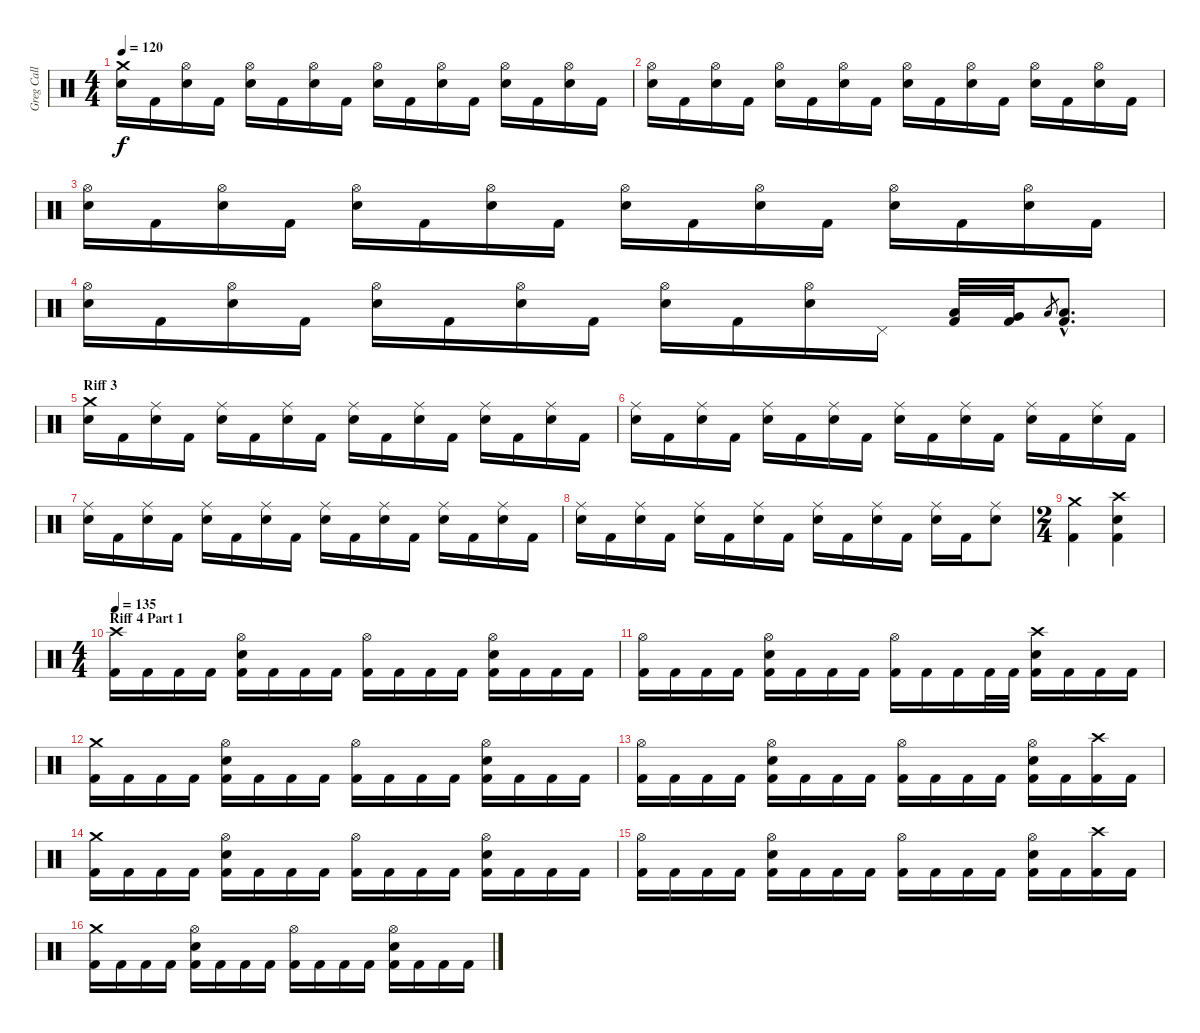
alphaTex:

\track ("Greg Call (Drums)" "Greg Call ") {instrument percussion}
\staff {score}
\articulation defaults
\ts (4 4)
\tempo 120
\clef neutral
\ks c
("Crash medium (hit)" "Snare (hit) 2").16{dy f} "Kick (hit) 2".16 ("Hi-Hat (open)" "Snare (hit) 2").16 "Kick (hit) 2".16 ("Hi-Hat (open)" "Snare (hit) 2").16 "Kick (hit) 2".16 ("Hi-Hat (open)" "Snare (hit) 2").16 "Kick (hit) 2".16 ("Hi-Hat (open)" "Snare (hit) 2").16 "Kick (hit) 2".16 ("Hi-Hat (open)" "Snare (hit) 2").16 "Kick (hit) 2".16 ("Hi-Hat (open)" "Snare (hit) 2").16 "Kick (hit) 2".16 ("Hi-Hat (open)" "Snare (hit) 2").16 "Kick (hit) 2".16 |
("Hi-Hat (open)" "Snare (hit) 2").16 "Kick (hit) 2".16 ("Hi-Hat (open)" "Snare (hit) 2").16 "Kick (hit) 2".16 ("Hi-Hat (open)" "Snare (hit) 2").16 "Kick (hit) 2".16 ("Hi-Hat (open)" "Snare (hit) 2").16 "Kick (hit) 2".16 ("Hi-Hat (open)" "Snare (hit) 2").16 "Kick (hit) 2".16 ("Hi-Hat (open)" "Snare (hit) 2").16 "Kick (hit) 2".16 ("Hi-Hat (open)" "Snare (hit) 2").16 "Kick (hit) 2".16 ("Hi-Hat (open)" "Snare (hit) 2").16 "Kick (hit) 2".16 |
("Hi-Hat (open)" "Snare (hit) 2").16 "Kick (hit) 2".16 ("Hi-Hat (open)" "Snare (hit) 2").16 "Kick (hit) 2".16 ("Hi-Hat (open)" "Snare (hit) 2").16 "Kick (hit) 2".16 ("Hi-Hat (open)" "Snare (hit) 2").16 "Kick (hit) 2".16 ("Hi-Hat (open)" "Snare (hit) 2").16 "Kick (hit) 2".16 ("Hi-Hat (open)" "Snare (hit) 2").16 "Kick (hit) 2".16 ("Hi-Hat (open)" "Snare (hit) 2").16 "Kick (hit) 2".16 ("Hi-Hat (open)" "Snare (hit) 2").16 "Kick (hit) 2".16 |
("Hi-Hat (open)" "Snare (hit) 2").16 "Kick (hit) 2".16 ("Hi-Hat (open)" "Snare (hit) 2").16 "Kick (hit) 2".16 ("Hi-Hat (open)" "Snare (hit) 2").16 "Kick (hit) 2".16 ("Hi-Hat (open)" "Snare (hit) 2").16 "Kick (hit) 2".16 ("Hi-Hat (open)" "Snare (hit) 2").16 "Kick (hit) 2".16 ("Snare (hit) 2" "Hi-Hat (open)").16 "Pedal Hi-Hat (hit)".16 ("Low Tom (hit)" "Kick (hit) 2").32 ("Very Low Tom (hit)" "Kick (hit) 2").32 "Low Floor Tom (hit)".8{gr} ("Low Floor Tom (hit)"{hac} "Kick (hit) 2"{hac}).8{d} |
\section ("" "Riff 3")
("Crash medium (hit)" "Snare (hit) 2").16 "Kick (hit) 2".16 ("Ride (middle)" "Snare (hit) 2").16 "Kick (hit) 2".16 ("Ride (middle)" "Snare (hit) 2").16 "Kick (hit) 2".16 ("Ride (middle)" "Snare (hit) 2").16 "Kick (hit) 2".16 ("Ride (middle)" "Snare (hit) 2").16 "Kick (hit) 2".16 ("Ride (middle)" "Snare (hit) 2").16 "Kick (hit) 2".16 ("Ride (middle)" "Snare (hit) 2").16 "Kick (hit) 2".16 ("Ride (middle)" "Snare (hit) 2").16 "Kick (hit) 2".16 |
("Ride (middle)" "Snare (hit) 2").16 "Kick (hit) 2".16 ("Ride (middle)" "Snare (hit) 2").16 "Kick (hit) 2".16 ("Ride (middle)" "Snare (hit) 2").16 "Kick (hit) 2".16 ("Ride (middle)" "Snare (hit) 2").16 "Kick (hit) 2".16 ("Ride (middle)" "Snare (hit) 2").16 "Kick (hit) 2".16 ("Ride (middle)" "Snare (hit) 2").16 "Kick (hit) 2".16 ("Ride (middle)" "Snare (hit) 2").16 "Kick (hit) 2".16 ("Ride (middle)" "Snare (hit) 2").16 "Kick (hit) 2".16 |
("Ride (middle)" "Snare (hit) 2").16 "Kick (hit) 2".16 ("Ride (middle)" "Snare (hit) 2").16 "Kick (hit) 2".16 ("Ride (middle)" "Snare (hit) 2").16 "Kick (hit) 2".16 ("Ride (middle)" "Snare (hit) 2").16 "Kick (hit) 2".16 ("Ride (middle)" "Snare (hit) 2").16 "Kick (hit) 2".16 ("Ride (middle)" "Snare (hit) 2").16 "Kick (hit) 2".16 ("Ride (middle)" "Snare (hit) 2").16 "Kick (hit) 2".16 ("Ride (middle)" "Snare (hit) 2").16 "Kick (hit) 2".16 |
("Ride (middle)" "Snare (hit) 2").16 "Kick (hit) 2".16 ("Ride (middle)" "Snare (hit) 2").16 "Kick (hit) 2".16 ("Ride (middle)" "Snare (hit) 2").16 "Kick (hit) 2".16 ("Ride (middle)" "Snare (hit) 2").16 "Kick (hit) 2".16 ("Ride (middle)" "Snare (hit) 2").16 "Kick (hit) 2".16 ("Ride (middle)" "Snare (hit) 2").16 "Kick (hit) 2".16 ("Ride (middle)" "Snare (hit) 2").16 "Kick (hit) 2".16 ("Ride (middle)" "Snare (hit) 2").8 |
\ts (2 4)
("Crash medium (hit)" "Kick (hit) 2").4 ("Snare (hit) 2" "Crash high (hit)" "Kick (hit) 2").4 |
\ts (4 4)
\section ("" "Riff 4 Part 1")
\tempo 135
("Crash high (hit)" "Kick (hit) 2").16 "Kick (hit) 2".16 "Kick (hit) 2".16 "Kick (hit) 2".16 ("Hi-Hat (open)" "Snare (hit) 2" "Kick (hit) 2").16 "Kick (hit) 2".16 "Kick (hit) 2".16 "Kick (hit) 2".16 ("Hi-Hat (open)" "Kick (hit) 2").16 "Kick (hit) 2".16 "Kick (hit) 2".16 "Kick (hit) 2".16 ("Hi-Hat (open)" "Snare (hit) 2" "Kick (hit) 2").16 "Kick (hit) 2".16 "Kick (hit) 2".16 "Kick (hit) 2".16 |
("Hi-Hat (open)" "Kick (hit) 2").16 "Kick (hit) 2".16 "Kick (hit) 2".16 "Kick (hit) 2".16 ("Hi-Hat (open)" "Snare (hit) 2" "Kick (hit) 2").16 "Kick (hit) 2".16 "Kick (hit) 2".16 "Kick (hit) 2".16 ("Hi-Hat (open)" "Kick (hit) 2").16 "Kick (hit) 2".16 "Kick (hit) 2".16 "Kick (hit) 2".32 "Kick (hit) 2".32 ("Crash high (hit)" "Kick (hit) 2" "Snare (hit) 2").16 "Kick (hit) 2".16 "Kick (hit) 2".16 "Kick (hit) 2".16 |
("Crash medium (hit)" "Kick (hit) 2").16 "Kick (hit) 2".16 "Kick (hit) 2".16 "Kick (hit) 2".16 ("Hi-Hat (open)" "Snare (hit) 2" "Kick (hit) 2").16 "Kick (hit) 2".16 "Kick (hit) 2".16 "Kick (hit) 2".16 ("Hi-Hat (open)" "Kick (hit) 2").16 "Kick (hit) 2".16 "Kick (hit) 2".16 "Kick (hit) 2".16 ("Hi-Hat (open)" "Snare (hit) 2" "Kick (hit) 2").16 "Kick (hit) 2".16 "Kick (hit) 2".16 "Kick (hit) 2".16 |
("Hi-Hat (open)" "Kick (hit) 2").16 "Kick (hit) 2".16 "Kick (hit) 2".16 "Kick (hit) 2".16 ("Hi-Hat (open)" "Snare (hit) 2" "Kick (hit) 2").16 "Kick (hit) 2".16 "Kick (hit) 2".16 "Kick (hit) 2".16 ("Hi-Hat (open)" "Kick (hit) 2").16 "Kick (hit) 2".16 "Kick (hit) 2".16 "Kick (hit) 2".16 ("Hi-Hat (open)" "Snare (hit) 2" "Kick (hit) 2").16 "Kick (hit) 2".16 ("Crash high (hit)" "Kick (hit) 2").16 "Kick (hit) 2".16 |
("Crash medium (hit)" "Kick (hit) 2").16 "Kick (hit) 2".16 "Kick (hit) 2".16 "Kick (hit) 2".16 ("Hi-Hat (open)" "Snare (hit) 2" "Kick (hit) 2").16 "Kick (hit) 2".16 "Kick (hit) 2".16 "Kick (hit) 2".16 ("Hi-Hat (open)" "Kick (hit) 2").16 "Kick (hit) 2".16 "Kick (hit) 2".16 "Kick (hit) 2".16 ("Hi-Hat (open)" "Snare (hit) 2" "Kick (hit) 2").16 "Kick (hit) 2".16 "Kick (hit) 2".16 "Kick (hit) 2".16 |
("Hi-Hat (open)" "Kick (hit) 2").16 "Kick (hit) 2".16 "Kick (hit) 2".16 "Kick (hit) 2".16 ("Hi-Hat (open)" "Snare (hit) 2" "Kick (hit) 2").16 "Kick (hit) 2".16 "Kick (hit) 2".16 "Kick (hit) 2".16 ("Hi-Hat (open)" "Kick (hit) 2").16 "Kick (hit) 2".16 "Kick (hit) 2".16 "Kick (hit) 2".16 ("Hi-Hat (open)" "Snare (hit) 2" "Kick (hit) 2").16 "Kick (hit) 2".16 ("Crash high (hit)" "Kick (hit) 2").16 "Kick (hit) 2".16 |
("Crash medium (hit)" "Kick (hit) 2").16 "Kick (hit) 2".16 "Kick (hit) 2".16 "Kick (hit) 2".16 ("Hi-Hat (open)" "Snare (hit) 2" "Kick (hit) 2").16 "Kick (hit) 2".16 "Kick (hit) 2".16 "Kick (hit) 2".16 ("Hi-Hat (open)" "Kick (hit) 2").16 "Kick (hit) 2".16 "Kick (hit) 2".16 "Kick (hit) 2".16 ("Hi-Hat (open)" "Snare (hit) 2" "Kick (hit) 2").16 "Kick (hit) 2".16 "Kick (hit) 2".16 "Kick (hit) 2".16
